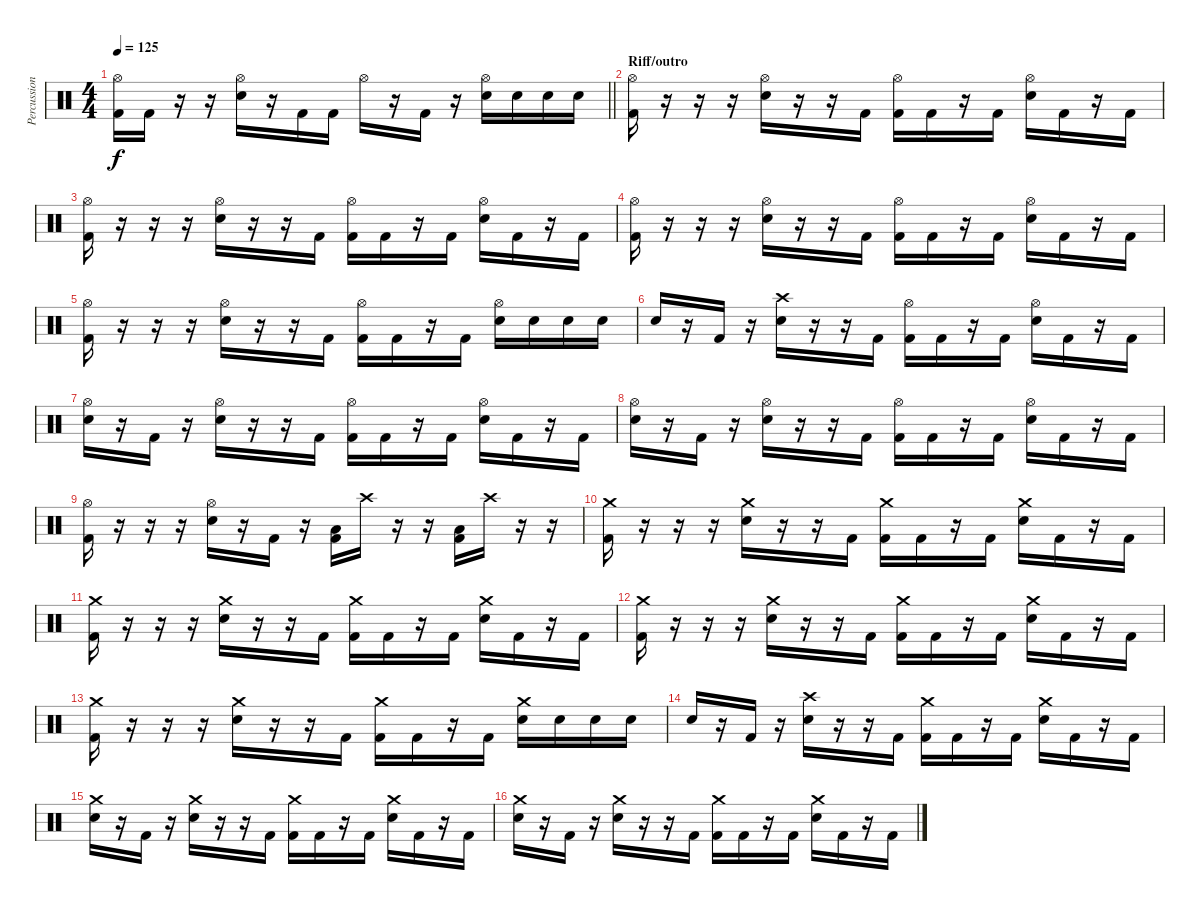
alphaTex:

\track ("Percussion" "Percussion") {instrument percussion}
\staff {score}
\articulation defaults
\ts (4 4)
\tempo 125
\clef neutral
\barLineRight lightlight
\ks c
("Hi-Hat (open)" "Kick (hit) 2").16{dy f} "Kick (hit) 2".16 r.16 r.16 ("Hi-Hat (open)" "Electric Snare (hit)").16 r.16 "Kick (hit) 2".16 "Kick (hit) 2".16 "Hi-Hat (open)".16 r.16 "Kick (hit) 2".16 r.16 ("Hi-Hat (open)" "Electric Snare (hit)").16 "Electric Snare (hit)".16 "Electric Snare (hit)".16 "Electric Snare (hit)".16 |
\section ("" "Riff/outro")
("Hi-Hat (open)" "Kick (hit) 2").16 r.16 r.16 r.16 ("Hi-Hat (open)" "Electric Snare (hit)").16 r.16 r.16 "Kick (hit) 2".16 ("Hi-Hat (open)" "Kick (hit) 2").16 "Kick (hit) 2".16 r.16 "Kick (hit) 2".16 ("Hi-Hat (open)" "Electric Snare (hit)").16 "Kick (hit) 2".16 r.16 "Kick (hit) 2".16 |
("Hi-Hat (open)" "Kick (hit) 2").16 r.16 r.16 r.16 ("Hi-Hat (open)" "Electric Snare (hit)").16 r.16 r.16 "Kick (hit) 2".16 ("Hi-Hat (open)" "Kick (hit) 2").16 "Kick (hit) 2".16 r.16 "Kick (hit) 2".16 ("Hi-Hat (open)" "Electric Snare (hit)").16 "Kick (hit) 2".16 r.16 "Kick (hit) 2".16 |
("Hi-Hat (open)" "Kick (hit) 2").16 r.16 r.16 r.16 ("Hi-Hat (open)" "Electric Snare (hit)").16 r.16 r.16 "Kick (hit) 2".16 ("Hi-Hat (open)" "Kick (hit) 2").16 "Kick (hit) 2".16 r.16 "Kick (hit) 2".16 ("Hi-Hat (open)" "Electric Snare (hit)").16 "Kick (hit) 2".16 r.16 "Kick (hit) 2".16 |
("Hi-Hat (open)" "Kick (hit) 2").16 r.16 r.16 r.16 ("Hi-Hat (open)" "Electric Snare (hit)").16 r.16 r.16 "Kick (hit) 2".16 ("Hi-Hat (open)" "Kick (hit) 2").16 "Kick (hit) 2".16 r.16 "Kick (hit) 2".16 ("Hi-Hat (open)" "Electric Snare (hit)").16 "Electric Snare (hit)".16 "Electric Snare (hit)".16 "Electric Snare (hit)".16 |
"Electric Snare (hit)".16 r.16 "Kick (hit) 2".16 r.16 ("Crash high (hit)" "Electric Snare (hit)").16 r.16 r.16 "Kick (hit) 2".16 ("Hi-Hat (open)" "Kick (hit) 2").16 "Kick (hit) 2".16 r.16 "Kick (hit) 2".16 ("Hi-Hat (open)" "Electric Snare (hit)").16 "Kick (hit) 2".16 r.16 "Kick (hit) 2".16 |
("Hi-Hat (open)" "Electric Snare (hit)").16 r.16 "Kick (hit) 2".16 r.16 ("Hi-Hat (open)" "Electric Snare (hit)").16 r.16 r.16 "Kick (hit) 2".16 ("Hi-Hat (open)" "Kick (hit) 2").16 "Kick (hit) 2".16 r.16 "Kick (hit) 2".16 ("Hi-Hat (open)" "Electric Snare (hit)").16 "Kick (hit) 2".16 r.16 "Kick (hit) 2".16 |
("Hi-Hat (open)" "Electric Snare (hit)").16 r.16 "Kick (hit) 2".16 r.16 ("Hi-Hat (open)" "Electric Snare (hit)").16 r.16 r.16 "Kick (hit) 2".16 ("Hi-Hat (open)" "Kick (hit) 2").16 "Kick (hit) 2".16 r.16 "Kick (hit) 2".16 ("Hi-Hat (open)" "Electric Snare (hit)").16 "Kick (hit) 2".16 r.16 "Kick (hit) 2".16 |
("Hi-Hat (open)" "Kick (hit) 2").16 r.16 r.16 r.16 ("Hi-Hat (open)" "Electric Snare (hit)").16 r.16 "Kick (hit) 2".16 r.16 ("Low Floor Tom (hit)" "Kick (hit) 2").16 "Crash high (hit)".16 r.16 r.16 ("Low Floor Tom (hit)" "Kick (hit) 2").16 "Crash high (hit)".16 r.16 r.16 |
("Crash medium (hit)" "Kick (hit) 2").16 r.16 r.16 r.16 ("Crash medium (hit)" "Electric Snare (hit)").16 r.16 r.16 "Kick (hit) 2".16 ("Crash medium (hit)" "Kick (hit) 2").16 "Kick (hit) 2".16 r.16 "Kick (hit) 2".16 ("Crash medium (hit)" "Electric Snare (hit)").16 "Kick (hit) 2".16 r.16 "Kick (hit) 2".16 |
("Crash medium (hit)" "Kick (hit) 2").16 r.16 r.16 r.16 ("Crash medium (hit)" "Electric Snare (hit)").16 r.16 r.16 "Kick (hit) 2".16 ("Crash medium (hit)" "Kick (hit) 2").16 "Kick (hit) 2".16 r.16 "Kick (hit) 2".16 ("Crash medium (hit)" "Electric Snare (hit)").16 "Kick (hit) 2".16 r.16 "Kick (hit) 2".16 |
("Crash medium (hit)" "Kick (hit) 2").16 r.16 r.16 r.16 ("Crash medium (hit)" "Electric Snare (hit)").16 r.16 r.16 "Kick (hit) 2".16 ("Crash medium (hit)" "Kick (hit) 2").16 "Kick (hit) 2".16 r.16 "Kick (hit) 2".16 ("Crash medium (hit)" "Electric Snare (hit)").16 "Kick (hit) 2".16 r.16 "Kick (hit) 2".16 |
("Crash medium (hit)" "Kick (hit) 2").16 r.16 r.16 r.16 ("Crash medium (hit)" "Electric Snare (hit)").16 r.16 r.16 "Kick (hit) 2".16 ("Crash medium (hit)" "Kick (hit) 2").16 "Kick (hit) 2".16 r.16 "Kick (hit) 2".16 ("Crash medium (hit)" "Electric Snare (hit)").16 "Electric Snare (hit)".16 "Electric Snare (hit)".16 "Electric Snare (hit)".16 |
"Electric Snare (hit)".16 r.16 "Kick (hit) 2".16 r.16 ("Crash high (hit)" "Electric Snare (hit)").16 r.16 r.16 "Kick (hit) 2".16 ("Crash medium (hit)" "Kick (hit) 2").16 "Kick (hit) 2".16 r.16 "Kick (hit) 2".16 ("Crash medium (hit)" "Electric Snare (hit)").16 "Kick (hit) 2".16 r.16 "Kick (hit) 2".16 |
("Crash medium (hit)" "Electric Snare (hit)").16 r.16 "Kick (hit) 2".16 r.16 ("Crash medium (hit)" "Electric Snare (hit)").16 r.16 r.16 "Kick (hit) 2".16 ("Crash medium (hit)" "Kick (hit) 2").16 "Kick (hit) 2".16 r.16 "Kick (hit) 2".16 ("Crash medium (hit)" "Electric Snare (hit)").16 "Kick (hit) 2".16 r.16 "Kick (hit) 2".16 |
("Crash medium (hit)" "Electric Snare (hit)").16 r.16 "Kick (hit) 2".16 r.16 ("Crash medium (hit)" "Electric Snare (hit)").16 r.16 r.16 "Kick (hit) 2".16 ("Crash medium (hit)" "Kick (hit) 2").16 "Kick (hit) 2".16 r.16 "Kick (hit) 2".16 ("Crash medium (hit)" "Electric Snare (hit)").16 "Kick (hit) 2".16 r.16 "Kick (hit) 2".16
